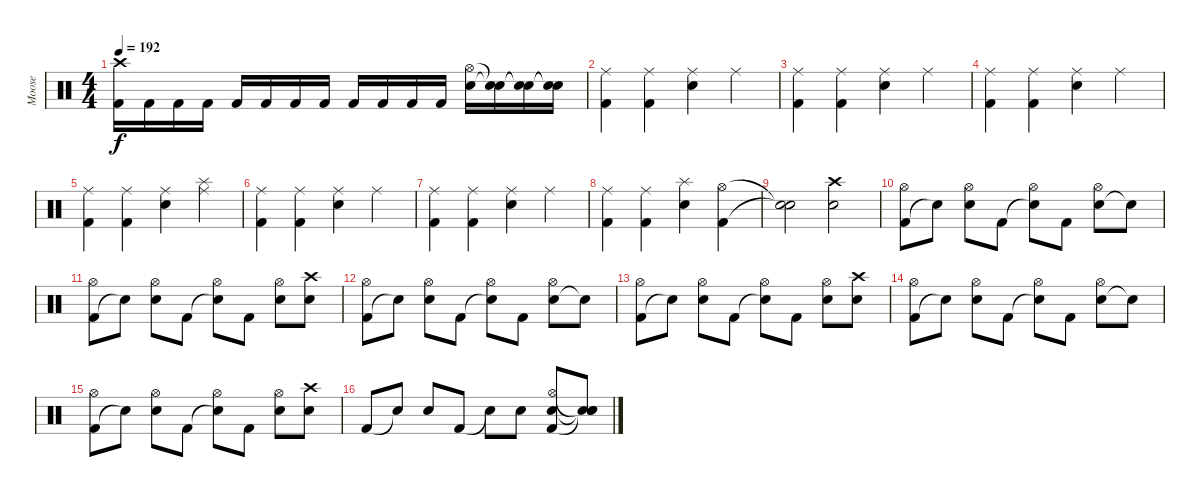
\track ("Moose" "Moose") {instrument percussion}
\staff {score}
\articulation defaults
\ts (4 4)
\tempo 192
\clef neutral
\ks c
("Kick (hit) 2" "Crash high (hit)").16{dy f} "Kick (hit) 2".16 "Kick (hit) 2".16 "Kick (hit) 2".16 "Kick (hit) 2".16 "Kick (hit) 2".16 "Kick (hit) 2".16 "Kick (hit) 2".16 "Kick (hit) 2".16 "Kick (hit) 2".16 "Kick (hit) 2".16 "Kick (hit) 2".16 ("Electric Snare (hit)" "Hi-Hat (open)").16 ("Snare (hit)"{t} "Snare (hit)"{t}).16 ("Snare (hit)"{t} "Snare (hit)"{t}).16 ("Snare (hit)"{t} "Snare (hit)"{t}).16 |
("Kick (hit) 2" "Ride (middle)").4 ("Kick (hit) 2" "Ride (middle)").4 ("Electric Snare (hit)" "Ride (middle)").4 "Ride (middle)".4 |
("Kick (hit) 2" "Ride (middle)").4 ("Kick (hit) 2" "Ride (middle)").4 ("Electric Snare (hit)" "Ride (middle)").4 "Ride (middle)".4 |
("Kick (hit) 2" "Ride (middle)").4 ("Kick (hit) 2" "Ride (middle)").4 ("Electric Snare (hit)" "Ride (middle)").4 "Ride (middle)".4 |
("Kick (hit) 2" "Ride (middle)").4 ("Kick (hit) 2" "Ride (middle)").4 ("Electric Snare (hit)" "Ride (middle)").4 ("Ride (middle)" "Splash (hit)").4 |
("Kick (hit) 2" "Ride (middle)").4 ("Kick (hit) 2" "Ride (middle)").4 ("Electric Snare (hit)" "Ride (middle)").4 "Ride (middle)".4 |
("Kick (hit) 2" "Ride (middle)").4 ("Kick (hit) 2" "Ride (middle)").4 ("Electric Snare (hit)" "Ride (middle)").4 "Ride (middle)".4 |
("Kick (hit) 2" "Ride (middle)").4 ("Kick (hit) 2" "Ride (middle)").4 ("Electric Snare (hit)" "Splash (hit)").4 ("Kick (hit) 2" "Hi-Hat (open)").4 |
("Snare (hit)"{t} "Snare (hit)"{t}).2 ("Snare (hit) 2" "Crash high (hit)").2 |
("Kick (hit) 2" "Hi-Hat (open)").8 "Snare (hit)"{t}.8 ("Electric Snare (hit)" "Hi-Hat (open)").8 "Kick (hit) 2".8 ("Snare (hit)"{t} "Hi-Hat (open)").8 "Kick (hit) 2".8 ("Electric Snare (hit)" "Hi-Hat (open)").8 "Electric Snare (hit)"{t}.8 |
("Kick (hit) 2" "Hi-Hat (open)").8 "Snare (hit)"{t}.8 ("Electric Snare (hit)" "Hi-Hat (open)").8 "Kick (hit) 2".8 ("Snare (hit)"{t} "Hi-Hat (open)").8 "Kick (hit) 2".8 ("Electric Snare (hit)" "Hi-Hat (open)").8 ("Electric Snare (hit)" "Crash high (hit)").8 |
("Kick (hit) 2" "Hi-Hat (open)").8 "Snare (hit)"{t}.8 ("Electric Snare (hit)" "Hi-Hat (open)").8 "Kick (hit) 2".8 ("Snare (hit)"{t} "Hi-Hat (open)").8 "Kick (hit) 2".8 ("Electric Snare (hit)" "Hi-Hat (open)").8 "Electric Snare (hit)"{t}.8 |
("Kick (hit) 2" "Hi-Hat (open)").8 "Snare (hit)"{t}.8 ("Electric Snare (hit)" "Hi-Hat (open)").8 "Kick (hit) 2".8 ("Snare (hit)"{t} "Hi-Hat (open)").8 "Kick (hit) 2".8 ("Electric Snare (hit)" "Hi-Hat (open)").8 ("Electric Snare (hit)" "Crash high (hit)").8 |
("Kick (hit) 2" "Hi-Hat (open)").8 "Snare (hit)"{t}.8 ("Electric Snare (hit)" "Hi-Hat (open)").8 "Kick (hit) 2".8 ("Snare (hit)"{t} "Hi-Hat (open)").8 "Kick (hit) 2".8 ("Electric Snare (hit)" "Hi-Hat (open)").8 "Electric Snare (hit)"{t}.8 |
("Kick (hit) 2" "Hi-Hat (open)").8 "Snare (hit)"{t}.8 ("Electric Snare (hit)" "Hi-Hat (open)").8 "Kick (hit) 2".8 ("Snare (hit)"{t} "Hi-Hat (open)").8 "Kick (hit) 2".8 ("Electric Snare (hit)" "Hi-Hat (open)").8 ("Electric Snare (hit)" "Crash high (hit)").8 |
"Kick (hit) 2".8 "Snare (hit)"{t}.8 "Electric Snare (hit)".8 "Kick (hit) 2".8 "Snare (hit)"{t}.8 "Electric Snare (hit)".8 ("Kick (hit) 2" "Snare (hit) 2" "Hi-Hat (open)").8 ("Snare (hit)"{t} "Snare (hit)"{t} "Snare (hit)"{t}).8
